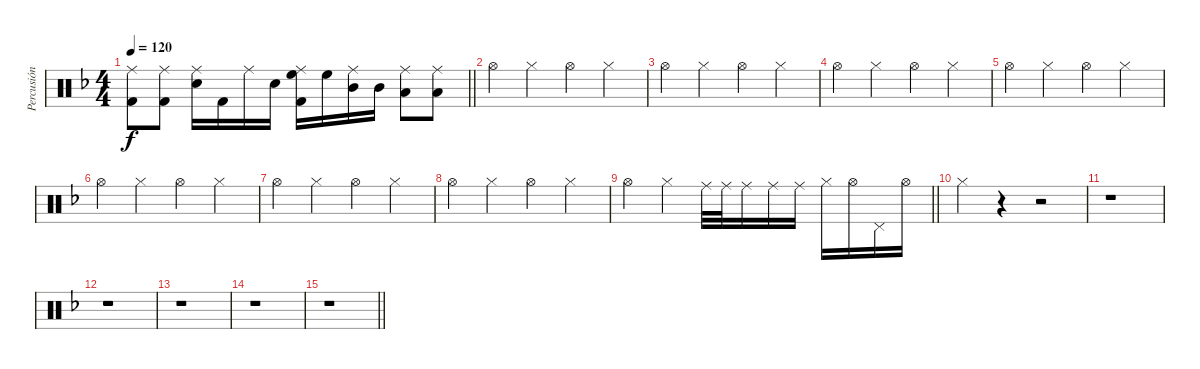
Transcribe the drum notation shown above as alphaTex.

\track ("Percusión" "Percusión") {instrument percussion}
\staff {score}
\articulation defaults
\ts (4 4)
\tempo 120
\clef neutral
\barLineRight lightlight
\ks dminor
("Ride (middle)" "Kick (hit) 2").8{dy f} ("Ride (middle)" "Kick (hit) 2").8 ("Ride (middle)" "Snare (hit) 2").16 "Kick (hit) 2".16 "Ride (middle)".16 "Snare (hit) 2".16 ("Ride (middle)" "High Floor Tom (hit)" "Kick (hit) 2").16 "High Floor Tom (hit)".16 ("Ride (middle)" "Mid Tom (hit)").16 "Mid Tom (hit)".16 ("Ride (middle)" "Low Tom (hit)").8 ("Ride (middle)" "Low Floor Tom (hit)").8 |
"Hi-Hat (open)".4{volume 9} "Hi-Hat (closed)".4 "Hi-Hat (open)".4 "Hi-Hat (closed)".4 |
"Hi-Hat (open)".4 "Hi-Hat (closed)".4 "Hi-Hat (open)".4 "Hi-Hat (closed)".4 |
"Hi-Hat (open)".4 "Hi-Hat (closed)".4 "Hi-Hat (open)".4 "Hi-Hat (closed)".4 |
"Hi-Hat (open)".4 "Hi-Hat (closed)".4 "Hi-Hat (open)".4 "Hi-Hat (closed)".4 |
"Hi-Hat (open)".4 "Hi-Hat (closed)".4 "Hi-Hat (open)".4 "Hi-Hat (closed)".4 |
"Hi-Hat (open)".4 "Hi-Hat (closed)".4 "Hi-Hat (open)".4 "Hi-Hat (closed)".4 |
"Hi-Hat (open)".4 "Hi-Hat (closed)".4 "Hi-Hat (open)".4 "Hi-Hat (closed)".4 |
\barLineRight lightlight "Hi-Hat (open)".4 "Hi-Hat (closed)".4 "Ride (middle)".32 "Ride (middle)".32 "Ride (middle)".16 "Ride (middle)".16 "Ride (middle)".16 "Hi-Hat (closed)".16 "Hi-Hat (open)".16 "Pedal Hi-Hat (hit)".16 "Hi-Hat (open)".16
|
"Hi-Hat (closed)".4 r.4 r.2 |
r.1 |
r.1 |
r.1 |
r.1 |
\barLineRight lightlight
r.1
